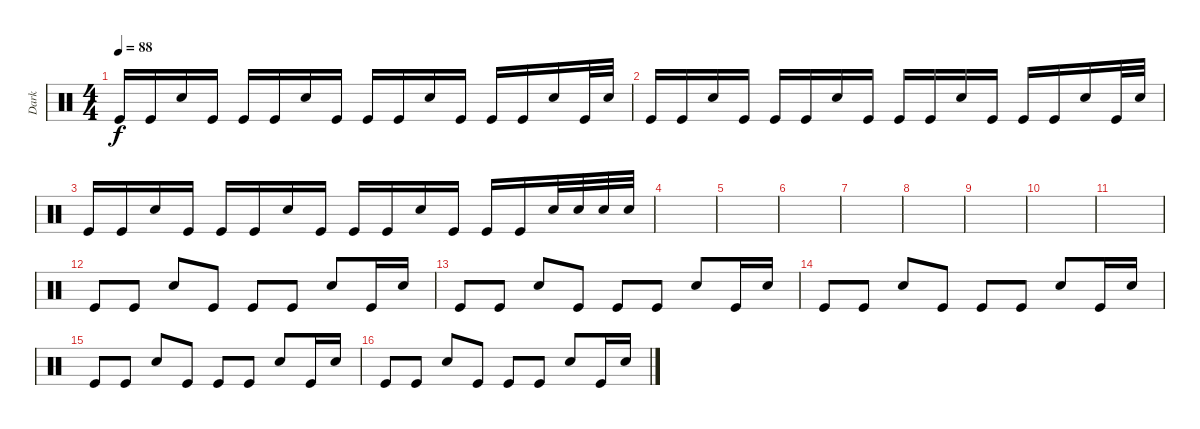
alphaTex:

\track ("Dark " "Dark ") {instrument percussion}
\staff {score}
\articulation defaults
\ts (4 4)
\tempo 88
\clef neutral
\ks c "Kick (hit)".16{dy f} "Kick (hit)".16 "Snare (hit) 2".16 "Kick (hit)".16 "Kick (hit)".16 "Kick (hit)".16 "Snare (hit) 2".16 "Kick (hit)".16 "Kick (hit)".16 "Kick (hit)".16 "Snare (hit) 2".16 "Kick (hit)".16 "Kick (hit)".16 "Kick (hit)".16 "Snare (hit) 2".16 "Kick (hit)".32 "Snare (hit) 2".32
|
"Kick (hit)".16 "Kick (hit)".16 "Snare (hit) 2".16 "Kick (hit)".16 "Kick (hit)".16 "Kick (hit)".16 "Snare (hit) 2".16 "Kick (hit)".16 "Kick (hit)".16 "Kick (hit)".16 "Snare (hit) 2".16 "Kick (hit)".16 "Kick (hit)".16 "Kick (hit)".16 "Snare (hit) 2".16 "Kick (hit)".32 "Snare (hit) 2".32 |
"Kick (hit)".16 "Kick (hit)".16 "Snare (hit) 2".16 "Kick (hit)".16 "Kick (hit)".16 "Kick (hit)".16 "Snare (hit) 2".16 "Kick (hit)".16 "Kick (hit)".16 "Kick (hit)".16 "Snare (hit) 2".16 "Kick (hit)".16 "Kick (hit)".16 "Kick (hit)".16 "Snare (hit) 2".32 "Snare (hit) 2".32 "Snare (hit) 2".32 "Snare (hit) 2".32 |
|
|
|
|
|
|
|
|
"Kick (hit)".8 "Kick (hit)".8 "Snare (hit) 2".8 "Kick (hit)".8 "Kick (hit)".8 "Kick (hit)".8 "Snare (hit) 2".8 "Kick (hit)".16 "Snare (hit) 2".16 |
"Kick (hit)".8 "Kick (hit)".8 "Snare (hit) 2".8 "Kick (hit)".8 "Kick (hit)".8 "Kick (hit)".8 "Snare (hit) 2".8 "Kick (hit)".16 "Snare (hit) 2".16 |
"Kick (hit)".8 "Kick (hit)".8 "Snare (hit) 2".8 "Kick (hit)".8 "Kick (hit)".8 "Kick (hit)".8 "Snare (hit) 2".8 "Kick (hit)".16 "Snare (hit) 2".16 |
"Kick (hit)".8 "Kick (hit)".8 "Snare (hit) 2".8 "Kick (hit)".8 "Kick (hit)".8 "Kick (hit)".8 "Snare (hit) 2".8 "Kick (hit)".16 "Snare (hit) 2".16 |
"Kick (hit)".8 "Kick (hit)".8 "Snare (hit) 2".8 "Kick (hit)".8 "Kick (hit)".8 "Kick (hit)".8 "Snare (hit) 2".8 "Kick (hit)".16 "Snare (hit) 2".16
